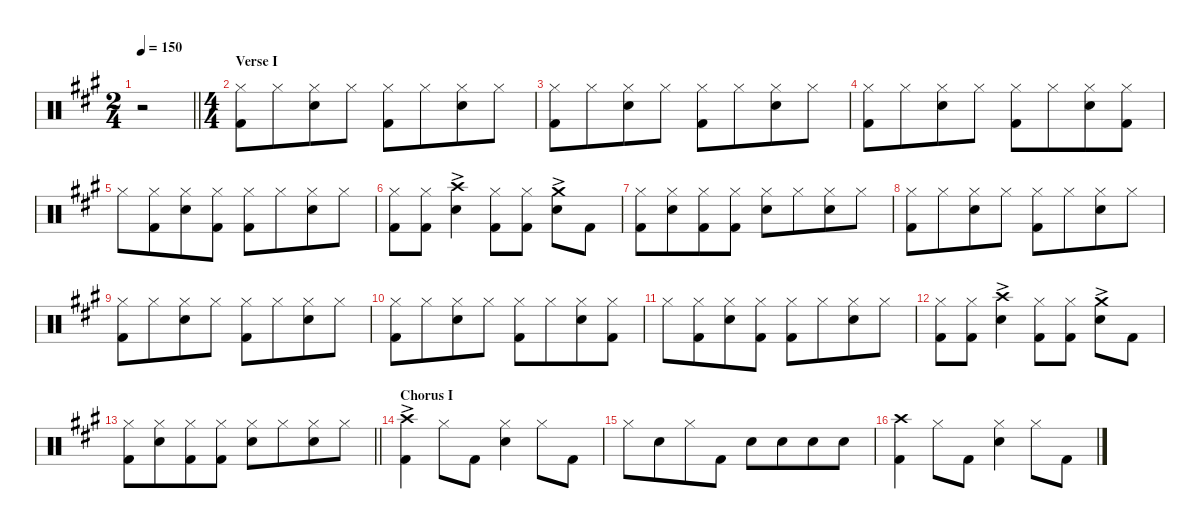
\defaultSystemsLayout 4
\hideDynamics
\bracketExtendMode nobrackets
\singleTrackTrackNamePolicy hidden
\multiTrackTrackNamePolicy hidden
\firstSystemTrackNameMode fullname
\firstSystemTrackNameOrientation horizontal
\otherSystemsTrackNameOrientation horizontal
\track ("Drums" "drm.") {instrument percussion}
\staff {score}
\articulation defaults
\ts (2 4)
\beaming (8 2 2)
\tempo 150
\clef neutral
\barLineRight lightlight
\ks a
r.2{dy f beam Down} |
\ts (4 4)
\beaming (8 2 2 2 2)
\section ("" "Verse I")
("Hi-Hat (closed)"{acc forcenatural} "Kick (hit) 2"{acc forcenatural}).8{beam Down} "Hi-Hat (closed)"{acc forcenatural}.8{beam Down beam merge} ("Hi-Hat (closed)"{acc forcenatural} "Snare (hit) 2"{acc forcenatural}).8{beam Down} "Hi-Hat (closed)"{acc forcenatural}.8{beam Down} ("Hi-Hat (closed)"{acc forcenatural} "Kick (hit) 2"{acc forcenatural}).8{beam Down} "Hi-Hat (closed)"{acc forcenatural}.8{beam Down beam merge} ("Hi-Hat (closed)"{acc forcenatural} "Snare (hit) 2"{acc forcenatural}).8{beam Down} "Hi-Hat (closed)"{acc forcenatural}.8{beam Down} |
("Hi-Hat (closed)"{acc forcenatural} "Kick (hit) 2"{acc forcenatural}).8{beam Down} "Hi-Hat (closed)"{acc forcenatural}.8{beam Down beam merge} ("Hi-Hat (closed)"{acc forcenatural} "Snare (hit) 2"{acc forcenatural}).8{beam Down} "Hi-Hat (closed)"{acc forcenatural}.8{beam Down} ("Hi-Hat (closed)"{acc forcenatural} "Kick (hit) 2"{acc forcenatural}).8{beam Down} "Hi-Hat (closed)"{acc forcenatural}.8{beam Down beam merge} ("Hi-Hat (closed)"{acc forcenatural} "Snare (hit) 2"{acc forcenatural}).8{beam Down} "Hi-Hat (closed)"{acc forcenatural}.8{beam Down} |
("Hi-Hat (closed)"{acc forcenatural} "Kick (hit) 2"{acc forcenatural}).8{beam Down} "Hi-Hat (closed)"{acc forcenatural}.8{beam Down beam merge} ("Hi-Hat (closed)"{acc forcenatural} "Snare (hit) 2"{acc forcenatural}).8{beam Down} "Hi-Hat (closed)"{acc forcenatural}.8{beam Down} ("Hi-Hat (closed)"{acc forcenatural} "Kick (hit) 2"{acc forcenatural}).8{beam Down} "Hi-Hat (closed)"{acc forcenatural}.8{beam Down beam merge} ("Hi-Hat (closed)"{acc forcenatural} "Snare (hit) 2"{acc forcenatural}).8{beam Down} ("Hi-Hat (closed)"{acc forcenatural} "Kick (hit) 2"{acc forcenatural}).8{beam Down} |
"Hi-Hat (closed)"{acc forcenatural}.8{beam Down} ("Hi-Hat (closed)"{acc forcenatural} "Kick (hit) 2"{acc forcenatural}).8{beam Down beam merge} ("Hi-Hat (closed)"{acc forcenatural} "Snare (hit) 2"{acc forcenatural}).8{beam Down} ("Hi-Hat (closed)"{acc forcenatural} "Kick (hit) 2"{acc forcenatural}).8{beam Down} ("Hi-Hat (closed)"{acc forcenatural} "Kick (hit) 2"{acc forcenatural}).8{beam Down} "Hi-Hat (closed)"{acc forcenatural}.8{beam Down beam merge} ("Hi-Hat (closed)"{acc forcenatural} "Snare (hit) 2"{acc forcenatural}).8{beam Down} "Hi-Hat (closed)"{acc forcenatural}.8{beam Down} |
("Hi-Hat (closed)"{acc forcenatural} "Kick (hit) 2"{acc forcenatural}).8{beam Down} ("Hi-Hat (closed)"{acc forcenatural} "Kick (hit) 2"{acc forcenatural}).8{beam Down} ("Crash high (hit)"{ac acc forcenatural} "Snare (hit) 2"{acc forcenatural}).4{beam Down} ("Hi-Hat (closed)"{acc forcenatural} "Kick (hit) 2"{acc forcenatural}).8{beam Down} ("Hi-Hat (closed)"{acc forcenatural} "Kick (hit) 2"{acc forcenatural}).8{beam Down} ("Crash medium (hit)"{ac acc forcenatural} "Snare (hit) 2"{acc forcenatural}).8{beam Down} "Kick (hit) 2"{acc forcenatural}.8{beam Down} |
("Hi-Hat (closed)"{acc forcenatural} "Kick (hit) 2"{acc forcenatural}).8{beam Down} ("Hi-Hat (closed)"{acc forcenatural} "Snare (hit) 2"{acc forcenatural}).8{beam Down beam merge} ("Hi-Hat (closed)"{acc forcenatural} "Kick (hit) 2"{acc forcenatural}).8{beam Down} ("Hi-Hat (closed)"{acc forcenatural} "Kick (hit) 2"{acc forcenatural}).8{beam Down} ("Hi-Hat (closed)"{acc forcenatural} "Snare (hit) 2"{acc forcenatural}).8{beam Down} "Hi-Hat (closed)"{acc forcenatural}.8{beam Down beam merge} ("Hi-Hat (closed)"{acc forcenatural} "Snare (hit) 2"{acc forcenatural}).8{beam Down} "Hi-Hat (closed)"{acc forcenatural}.8{beam Down} |
("Hi-Hat (closed)"{acc forcenatural} "Kick (hit) 2"{acc forcenatural}).8{beam Down} "Hi-Hat (closed)"{acc forcenatural}.8{beam Down beam merge} ("Hi-Hat (closed)"{acc forcenatural} "Snare (hit) 2"{acc forcenatural}).8{beam Down} "Hi-Hat (closed)"{acc forcenatural}.8{beam Down} ("Hi-Hat (closed)"{acc forcenatural} "Kick (hit) 2"{acc forcenatural}).8{beam Down} "Hi-Hat (closed)"{acc forcenatural}.8{beam Down beam merge} ("Hi-Hat (closed)"{acc forcenatural} "Snare (hit) 2"{acc forcenatural}).8{beam Down} "Hi-Hat (closed)"{acc forcenatural}.8{beam Down} |
("Hi-Hat (closed)"{acc forcenatural} "Kick (hit) 2"{acc forcenatural}).8{beam Down} "Hi-Hat (closed)"{acc forcenatural}.8{beam Down beam merge} ("Hi-Hat (closed)"{acc forcenatural} "Snare (hit) 2"{acc forcenatural}).8{beam Down} "Hi-Hat (closed)"{acc forcenatural}.8{beam Down} ("Hi-Hat (closed)"{acc forcenatural} "Kick (hit) 2"{acc forcenatural}).8{beam Down} "Hi-Hat (closed)"{acc forcenatural}.8{beam Down beam merge} ("Hi-Hat (closed)"{acc forcenatural} "Snare (hit) 2"{acc forcenatural}).8{beam Down} "Hi-Hat (closed)"{acc forcenatural}.8{beam Down} |
("Hi-Hat (closed)"{acc forcenatural} "Kick (hit) 2"{acc forcenatural}).8{beam Down} "Hi-Hat (closed)"{acc forcenatural}.8{beam Down beam merge} ("Hi-Hat (closed)"{acc forcenatural} "Snare (hit) 2"{acc forcenatural}).8{beam Down} "Hi-Hat (closed)"{acc forcenatural}.8{beam Down} ("Hi-Hat (closed)"{acc forcenatural} "Kick (hit) 2"{acc forcenatural}).8{beam Down} "Hi-Hat (closed)"{acc forcenatural}.8{beam Down beam merge} ("Hi-Hat (closed)"{acc forcenatural} "Snare (hit) 2"{acc forcenatural}).8{beam Down} ("Hi-Hat (closed)"{acc forcenatural} "Kick (hit) 2"{acc forcenatural}).8{beam Down} |
"Hi-Hat (closed)"{acc forcenatural}.8{beam Down} ("Hi-Hat (closed)"{acc forcenatural} "Kick (hit) 2"{acc forcenatural}).8{beam Down beam merge} ("Hi-Hat (closed)"{acc forcenatural} "Snare (hit) 2"{acc forcenatural}).8{beam Down} ("Hi-Hat (closed)"{acc forcenatural} "Kick (hit) 2"{acc forcenatural}).8{beam Down} ("Hi-Hat (closed)"{acc forcenatural} "Kick (hit) 2"{acc forcenatural}).8{beam Down} "Hi-Hat (closed)"{acc forcenatural}.8{beam Down beam merge} ("Hi-Hat (closed)"{acc forcenatural} "Snare (hit) 2"{acc forcenatural}).8{beam Down} "Hi-Hat (closed)"{acc forcenatural}.8{beam Down} |
("Hi-Hat (closed)"{acc forcenatural} "Kick (hit) 2"{acc forcenatural}).8{beam Down} ("Hi-Hat (closed)"{acc forcenatural} "Kick (hit) 2"{acc forcenatural}).8{beam Down} ("Crash high (hit)"{ac acc forcenatural} "Snare (hit) 2"{acc forcenatural}).4{beam Down} ("Hi-Hat (closed)"{acc forcenatural} "Kick (hit) 2"{acc forcenatural}).8{beam Down} ("Hi-Hat (closed)"{acc forcenatural} "Kick (hit) 2"{acc forcenatural}).8{beam Down} ("Crash medium (hit)"{ac acc forcenatural} "Snare (hit) 2"{acc forcenatural}).8{beam Down} "Kick (hit) 2"{acc forcenatural}.8{beam Down} |
\barLineRight lightlight
("Hi-Hat (closed)"{acc forcenatural} "Kick (hit) 2"{acc forcenatural}).8{beam Down} ("Hi-Hat (closed)"{acc forcenatural} "Snare (hit) 2"{acc forcenatural}).8{beam Down beam merge} ("Hi-Hat (closed)"{acc forcenatural} "Kick (hit) 2"{acc forcenatural}).8{beam Down} ("Hi-Hat (closed)"{acc forcenatural} "Kick (hit) 2"{acc forcenatural}).8{beam Down} ("Hi-Hat (closed)"{acc forcenatural} "Snare (hit) 2"{acc forcenatural}).8{beam Down} "Hi-Hat (closed)"{acc forcenatural}.8{beam Down beam merge} ("Hi-Hat (closed)"{acc forcenatural} "Snare (hit) 2"{acc forcenatural}).8{beam Down} "Hi-Hat (closed)"{acc forcenatural}.8{beam Down} |
\section ("" "Chorus I")
("Crash high (hit)"{ac acc forcenatural} "Kick (hit) 2"{acc forcenatural}).4{beam Down} "Hi-Hat (closed)"{acc forcenatural}.8{beam Down} "Kick (hit) 2"{acc forcenatural}.8{beam Down} ("Hi-Hat (closed)"{acc forcenatural} "Snare (hit) 2"{acc forcenatural}).4{beam Down} "Hi-Hat (closed)"{acc forcenatural}.8{beam Down} "Kick (hit) 2"{acc forcenatural}.8{beam Down} |
"Hi-Hat (closed)"{acc forcenatural}.8{beam Down} "Snare (hit) 2"{acc forcenatural}.8{beam Down beam merge} "Hi-Hat (closed)"{acc forcenatural}.8{beam Down} "Kick (hit) 2"{acc forcenatural}.8{beam Down} "Snare (hit) 2"{acc forcenatural}.8{beam Down} "Snare (hit) 2"{acc forcenatural}.8{beam Down beam merge} "Snare (hit) 2"{acc forcenatural}.8{beam Down} "Snare (hit) 2"{acc forcenatural}.8{beam Down} |
("Crash high (hit)"{acc forcenatural} "Kick (hit) 2"{acc forcenatural}).4{beam Down} "Hi-Hat (closed)"{acc forcenatural}.8{beam Down} "Kick (hit) 2"{acc forcenatural}.8{beam Down} ("Hi-Hat (closed)"{acc forcenatural} "Snare (hit) 2"{acc forcenatural}).4{beam Down} "Hi-Hat (closed)"{acc forcenatural}.8{beam Down} "Kick (hit) 2"{acc forcenatural}.8{beam Down}
